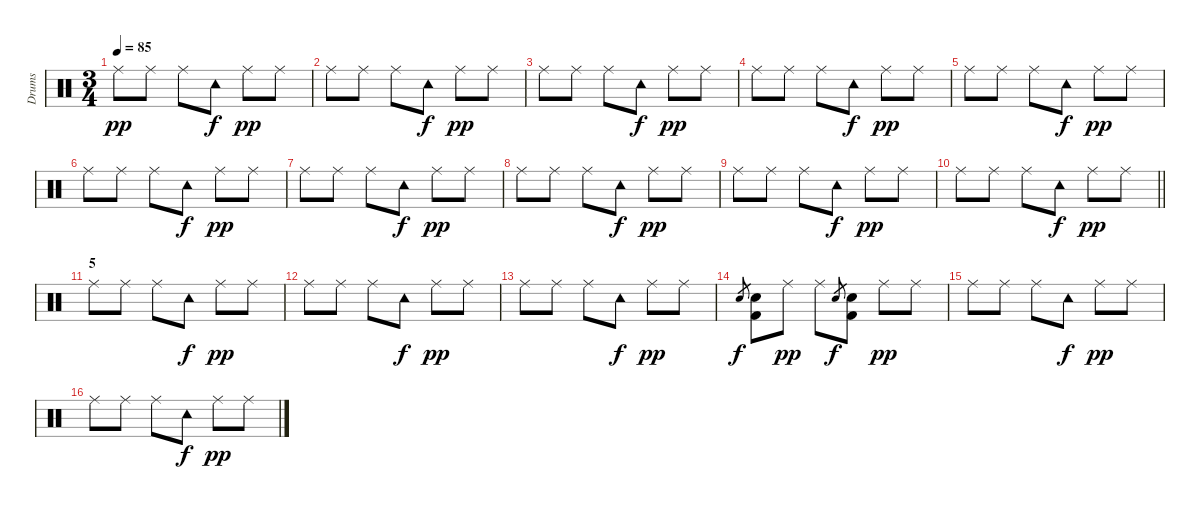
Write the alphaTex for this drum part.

\track ("Drums" "Drums") {instrument percussion}
\staff {score}
\articulation defaults
\ts (3 4)
\tempo 85
\clef neutral
\ks c "Ride (middle)".8{dy pp} "Ride (middle)".8 "Ride (middle)".8 "Tambourine (hit)".8{dy f} "Ride (middle)".8{dy pp} "Ride (middle)".8
|
"Ride (middle)".8 "Ride (middle)".8 "Ride (middle)".8 "Tambourine (hit)".8{dy f} "Ride (middle)".8{dy pp} "Ride (middle)".8 |
"Ride (middle)".8 "Ride (middle)".8 "Ride (middle)".8 "Tambourine (hit)".8{dy f} "Ride (middle)".8{dy pp} "Ride (middle)".8 |
"Ride (middle)".8 "Ride (middle)".8 "Ride (middle)".8 "Tambourine (hit)".8{dy f} "Ride (middle)".8{dy pp} "Ride (middle)".8 |
"Ride (middle)".8 "Ride (middle)".8 "Ride (middle)".8 "Tambourine (hit)".8{dy f} "Ride (middle)".8{dy pp} "Ride (middle)".8 |
"Ride (middle)".8 "Ride (middle)".8 "Ride (middle)".8 "Tambourine (hit)".8{dy f} "Ride (middle)".8{dy pp} "Ride (middle)".8 |
"Ride (middle)".8 "Ride (middle)".8 "Ride (middle)".8 "Tambourine (hit)".8{dy f} "Ride (middle)".8{dy pp} "Ride (middle)".8 |
"Ride (middle)".8 "Ride (middle)".8 "Ride (middle)".8 "Tambourine (hit)".8{dy f} "Ride (middle)".8{dy pp} "Ride (middle)".8 |
"Ride (middle)".8 "Ride (middle)".8 "Ride (middle)".8 "Tambourine (hit)".8{dy f} "Ride (middle)".8{dy pp} "Ride (middle)".8 |
\barLineRight lightlight "Ride (middle)".8 "Ride (middle)".8 "Ride (middle)".8 "Tambourine (hit)".8{dy f} "Ride (middle)".8{dy pp} "Ride (middle)".8
|
\section ("" "5")
"Ride (middle)".8 "Ride (middle)".8 "Ride (middle)".8 "Tambourine (hit)".8{dy f} "Ride (middle)".8{dy pp} "Ride (middle)".8 |
"Ride (middle)".8 "Ride (middle)".8 "Ride (middle)".8 "Tambourine (hit)".8{dy f} "Ride (middle)".8{dy pp} "Ride (middle)".8 |
"Ride (middle)".8 "Ride (middle)".8 "Ride (middle)".8 "Tambourine (hit)".8{dy f} "Ride (middle)".8{dy pp} "Ride (middle)".8 |
"Electric Snare (hit)".8{gr dy f} ("Electric Snare (hit)" "Kick (hit) 2").8 "Ride (middle)".8{dy pp} "Ride (middle)".8 "Electric Snare (hit)".8{gr dy f} ("Electric Snare (hit)" "Kick (hit) 2").8 "Ride (middle)".8{dy pp} "Ride (middle)".8 |
"Ride (middle)".8 "Ride (middle)".8 "Ride (middle)".8 "Tambourine (hit)".8{dy f} "Ride (middle)".8{dy pp} "Ride (middle)".8 |
"Ride (middle)".8 "Ride (middle)".8 "Ride (middle)".8 "Tambourine (hit)".8{dy f} "Ride (middle)".8{dy pp} "Ride (middle)".8
